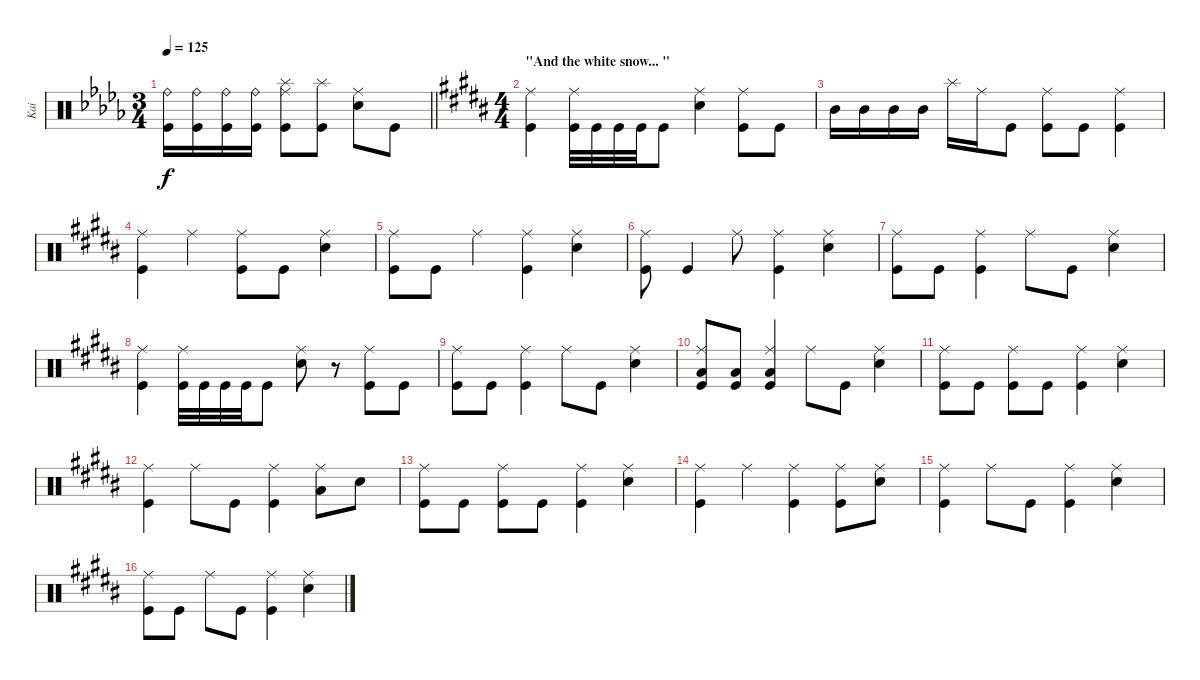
\track ("Kai" "Kai") {instrument percussion}
\staff {score}
\articulation defaults
\ts (3 4)
\tempo 125
\clef neutral
\barLineRight lightlight
\ks bbminor
("Ride (bell)" "Kick (hit)").16{dy f} ("Ride (bell)" "Kick (hit)").16 ("Ride (bell)" "Kick (hit)").16 ("Ride (bell)" "Kick (hit)").16 ("Kick (hit)" "Ride (middle)" "Splash (hit)").8 ("Kick (hit)" "Splash (hit)").8 ("Snare (hit) 2" "Ride (middle)").8 "Kick (hit)".8 |
\ts (4 4)
\section ("" "\"And the white snow... \"")
\ks b
("Kick (hit)" "Ride (middle)").4 ("Kick (hit)" "Ride (middle)").32 "Kick (hit)".32 "Kick (hit)".32 "Kick (hit)".32 "Kick (hit)".8 ("Ride (middle)" "Snare (hit) 2").4 ("Kick (hit)" "Ride (middle)").8 "Kick (hit)".8 |
"Mid Tom (hit)".16 "Mid Tom (hit)".16 "Mid Tom (hit)".16 "Mid Tom (hit)".16 "Splash (hit)".16 "Ride (middle)".16 "Kick (hit)".8 ("Kick (hit)" "Ride (middle)").8 "Kick (hit)".8 ("Ride (middle)" "Kick (hit)").4 |
("Kick (hit)" "Ride (middle)").4 "Ride (middle)".4 ("Kick (hit)" "Ride (middle)").8 "Kick (hit)".8 ("Snare (hit) 2" "Ride (middle)").4 |
("Kick (hit)" "Ride (middle)").8 "Kick (hit)".8 "Ride (middle)".4 ("Kick (hit)" "Ride (middle)").4 ("Ride (middle)" "Snare (hit) 2").4 |
("Kick (hit)" "Ride (middle)").8 "Kick (hit)".4 "Ride (middle)".8 ("Kick (hit)" "Ride (middle)").4 ("Snare (hit) 2" "Ride (middle)").4 |
("Kick (hit)" "Ride (middle)").8 "Kick (hit)".8 ("Kick (hit)" "Ride (middle)").4 "Ride (middle)".8 "Kick (hit)".8 ("Ride (middle)" "Snare (hit) 2").4 |
("Kick (hit)" "Ride (middle)").4 ("Kick (hit)" "Ride (middle)").32 "Kick (hit)".32 "Kick (hit)".32 "Kick (hit)".32 "Kick (hit)".8 ("Snare (hit) 2" "Ride (middle)").8 r.8 ("Kick (hit)" "Ride (middle)").8 "Kick (hit)".8 |
("Kick (hit)" "Ride (middle)").8 "Kick (hit)".8 ("Ride (middle)" "Kick (hit)").4 "Ride (middle)".8 "Kick (hit)".8 ("Ride (middle)" "Snare (hit) 2").4 |
("Kick (hit)" "Ride (middle)" "Low Tom (hit)").8 ("Kick (hit)" "Low Tom (hit)").8 ("Kick (hit)" "Ride (middle)" "Low Tom (hit)").4 "Ride (middle)".8 "Kick (hit)".8 ("Snare (hit) 2" "Ride (middle)").4 |
("Kick (hit)" "Ride (middle)").8 "Kick (hit)".8 ("Kick (hit)" "Ride (middle)").8 "Kick (hit)".8 ("Kick (hit)" "Ride (middle)").4 ("Snare (hit) 2" "Ride (middle)").4 |
("Kick (hit)" "Ride (middle)").4 "Ride (middle)".8 "Kick (hit)".8 ("Kick (hit)" "Ride (middle)").4 ("Ride (middle)" "Low Floor Tom (hit)").8 "Snare (hit) 2".8 |
("Kick (hit)" "Ride (middle)").8 "Kick (hit)".8 ("Kick (hit)" "Ride (middle)").8 "Kick (hit)".8 ("Kick (hit)" "Ride (middle)").4 ("Snare (hit) 2" "Ride (middle)").4 |
("Kick (hit)" "Ride (middle)").4 "Ride (middle)".4 ("Kick (hit)" "Ride (middle)").4 ("Kick (hit)" "Ride (middle)").8 ("Snare (hit) 2" "Ride (middle)").8 |
("Kick (hit)" "Ride (middle)").4 "Ride (middle)".8 "Kick (hit)".8 ("Kick (hit)" "Ride (middle)").4 ("Snare (hit) 2" "Ride (middle)").4 |
("Kick (hit)" "Ride (middle)").8 "Kick (hit)".8 "Ride (middle)".8 "Kick (hit)".8 ("Kick (hit)" "Ride (middle)").4 ("Snare (hit) 2" "Ride (middle)").4
